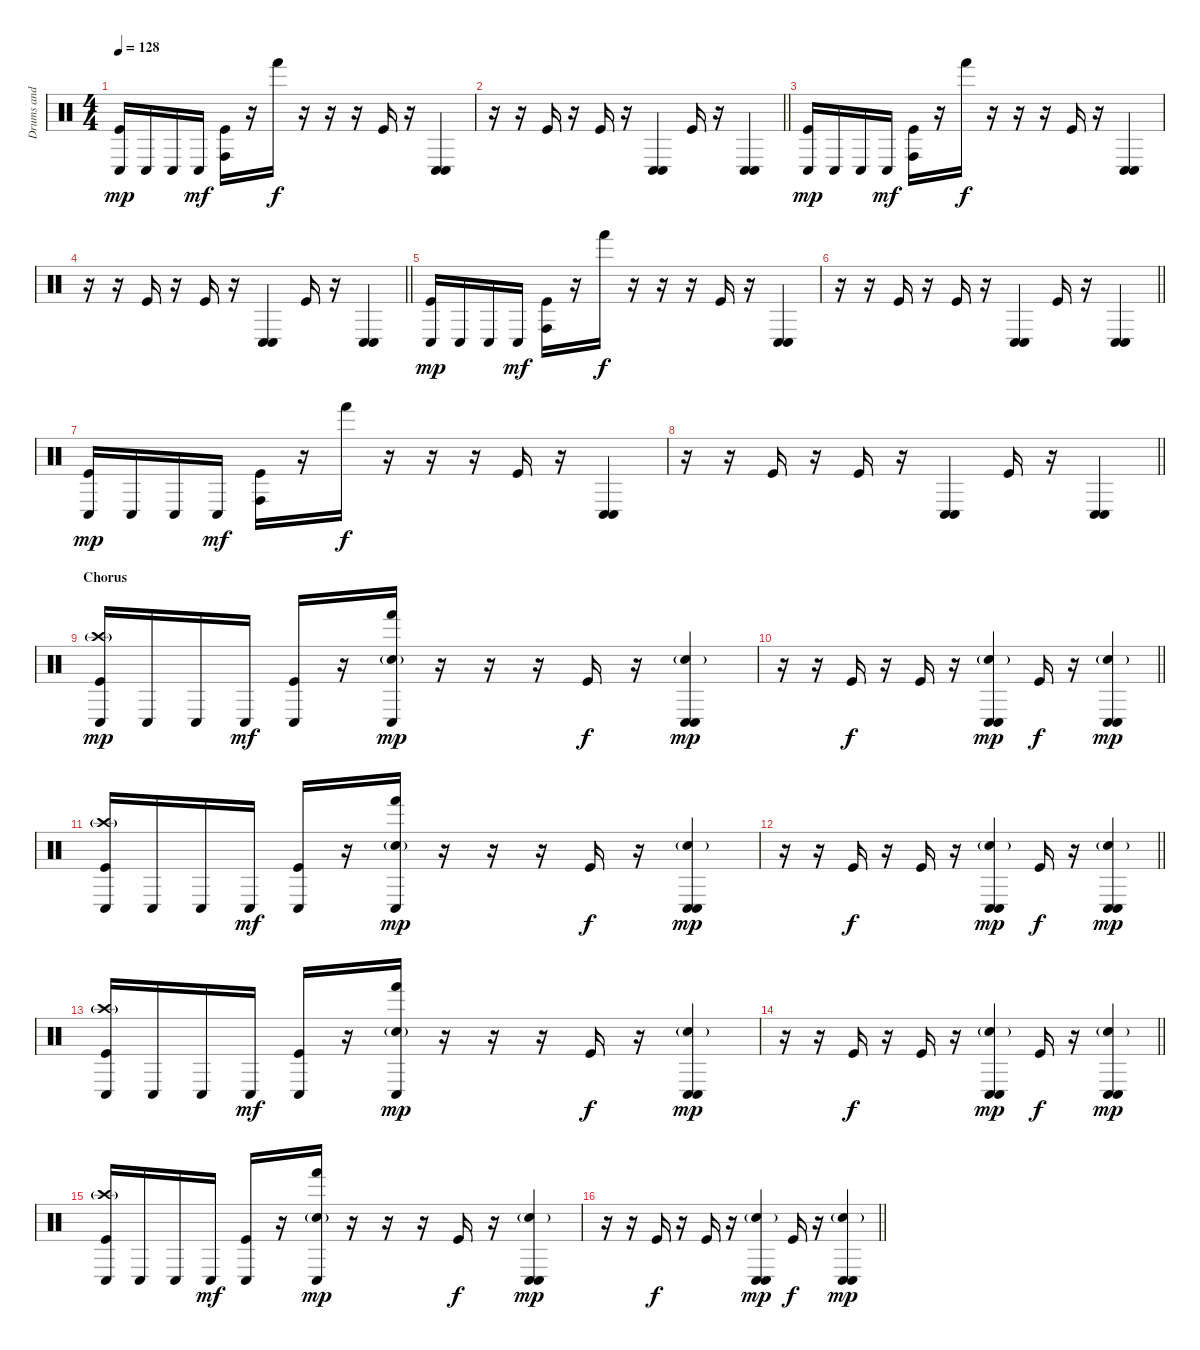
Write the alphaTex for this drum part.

\track ("Drums and Percussions" "Drums and ") {instrument percussion}
\staff {score}
\articulation defaults
\ts (4 4)
\tempo 128
\clef neutral
\ks c
("Conga low (hit)" "Kick (hit)").16{dy mp} "Conga low (hit)".16 "Conga low (hit)".16 "Conga low (hit)".16{dy mf} ("Conga high (hit)" "Kick (hit)").16 r.16 "Hand (hit)".16{dy f} r.16 r.16 r.16 "Kick (hit)".16 r.16 ("Conga low (hit)" "Conga low (hit)").4{bd 120} |
\barLineRight lightlight
r.16 r.16 "Kick (hit)".16 r.16 "Kick (hit)".16 r.16 ("Conga low (hit)" "Conga low (hit)").4{bd 120} "Kick (hit)".16 r.16 ("Conga low (hit)" "Conga low (hit)").4{bd 120} |
("Conga low (hit)" "Kick (hit)").16{dy mp} "Conga low (hit)".16 "Conga low (hit)".16 "Conga low (hit)".16{dy mf} ("Conga high (hit)" "Kick (hit)").16 r.16 "Hand (hit)".16{dy f} r.16 r.16 r.16 "Kick (hit)".16 r.16 ("Conga low (hit)" "Conga low (hit)").4{bd 120} |
\barLineRight lightlight
r.16 r.16 "Kick (hit)".16 r.16 "Kick (hit)".16 r.16 ("Conga low (hit)" "Conga low (hit)").4{bd 120} "Kick (hit)".16 r.16 ("Conga low (hit)" "Conga low (hit)").4{bd 120} |
("Conga low (hit)" "Kick (hit)").16{dy mp} "Conga low (hit)".16 "Conga low (hit)".16 "Conga low (hit)".16{dy mf} ("Conga high (hit)" "Kick (hit)").16 r.16 "Hand (hit)".16{dy f} r.16 r.16 r.16 "Kick (hit)".16 r.16 ("Conga low (hit)" "Conga low (hit)").4{bd 120} |
\barLineRight lightlight
r.16 r.16 "Kick (hit)".16 r.16 "Kick (hit)".16 r.16 ("Conga low (hit)" "Conga low (hit)").4{bd 120} "Kick (hit)".16 r.16 ("Conga low (hit)" "Conga low (hit)").4{bd 120} |
("Conga low (hit)" "Kick (hit)").16{dy mp} "Conga low (hit)".16 "Conga low (hit)".16 "Conga low (hit)".16{dy mf} ("Conga high (hit)" "Kick (hit)").16 r.16 "Hand (hit)".16{dy f} r.16 r.16 r.16 "Kick (hit)".16 r.16 ("Conga low (hit)" "Conga low (hit)").4{bd 120} |
\barLineRight lightlight
r.16 r.16 "Kick (hit)".16 r.16 "Kick (hit)".16 r.16 ("Conga low (hit)" "Conga low (hit)").4{bd 120} "Kick (hit)".16 r.16 ("Conga low (hit)" "Conga low (hit)").4{bd 120} |
\section ("" "Chorus")
("Crash high (hit)"{g} "Conga low (hit)" "Kick (hit)").16{dy mp} "Conga low (hit)".16 "Conga low (hit)".16 "Conga low (hit)".16{dy mf} ("Conga low (hit)" "Kick (hit)").16 r.16 ("Conga low (hit)" "Hand (hit)" "Electric Snare (hit)"{g}).16{dy mp} r.16 r.16 r.16 "Kick (hit)".16{dy f} r.16 ("Conga low (hit)" "Conga low (hit)" "Electric Snare (hit)"{g}).4{bd 120 dy mp} |
\barLineRight lightlight
r.16 r.16 "Kick (hit)".16{dy f} r.16 "Kick (hit)".16 r.16 ("Conga low (hit)" "Conga low (hit)" "Electric Snare (hit)"{g}).4{bd 120 dy mp} "Kick (hit)".16{dy f} r.16 ("Conga low (hit)" "Conga low (hit)" "Electric Snare (hit)"{g}).4{bd 120 dy mp} |
("Crash high (hit)"{g} "Conga low (hit)" "Kick (hit)").16 "Conga low (hit)".16 "Conga low (hit)".16 "Conga low (hit)".16{dy mf} ("Conga low (hit)" "Kick (hit)").16 r.16 ("Conga low (hit)" "Hand (hit)" "Electric Snare (hit)"{g}).16{dy mp} r.16 r.16 r.16 "Kick (hit)".16{dy f} r.16 ("Conga low (hit)" "Conga low (hit)" "Electric Snare (hit)"{g}).4{bd 120 dy mp} |
\barLineRight lightlight
r.16 r.16 "Kick (hit)".16{dy f} r.16 "Kick (hit)".16 r.16 ("Conga low (hit)" "Conga low (hit)" "Electric Snare (hit)"{g}).4{bd 120 dy mp} "Kick (hit)".16{dy f} r.16 ("Conga low (hit)" "Conga low (hit)" "Electric Snare (hit)"{g}).4{bd 120 dy mp} |
("Crash high (hit)"{g} "Conga low (hit)" "Kick (hit)").16 "Conga low (hit)".16 "Conga low (hit)".16 "Conga low (hit)".16{dy mf} ("Conga low (hit)" "Kick (hit)").16 r.16 ("Conga low (hit)" "Hand (hit)" "Electric Snare (hit)"{g}).16{dy mp} r.16 r.16 r.16 "Kick (hit)".16{dy f} r.16 ("Conga low (hit)" "Conga low (hit)" "Electric Snare (hit)"{g}).4{bd 120 dy mp} |
\barLineRight lightlight
r.16 r.16 "Kick (hit)".16{dy f} r.16 "Kick (hit)".16 r.16 ("Conga low (hit)" "Conga low (hit)" "Electric Snare (hit)"{g}).4{bd 120 dy mp} "Kick (hit)".16{dy f} r.16 ("Conga low (hit)" "Conga low (hit)" "Electric Snare (hit)"{g}).4{bd 120 dy mp} |
("Crash high (hit)"{g} "Conga low (hit)" "Kick (hit)").16 "Conga low (hit)".16 "Conga low (hit)".16 "Conga low (hit)".16{dy mf} ("Conga low (hit)" "Kick (hit)").16 r.16 ("Conga low (hit)" "Hand (hit)" "Electric Snare (hit)"{g}).16{dy mp} r.16 r.16 r.16 "Kick (hit)".16{dy f} r.16 ("Conga low (hit)" "Conga low (hit)" "Electric Snare (hit)"{g}).4{bd 120 dy mp} |
\barLineRight lightlight
r.16 r.16 "Kick (hit)".16{dy f} r.16 "Kick (hit)".16 r.16 ("Conga low (hit)" "Conga low (hit)" "Electric Snare (hit)"{g}).4{bd 120 dy mp} "Kick (hit)".16{dy f} r.16 ("Conga low (hit)" "Conga low (hit)" "Electric Snare (hit)"{g}).4{bd 120 dy mp}
